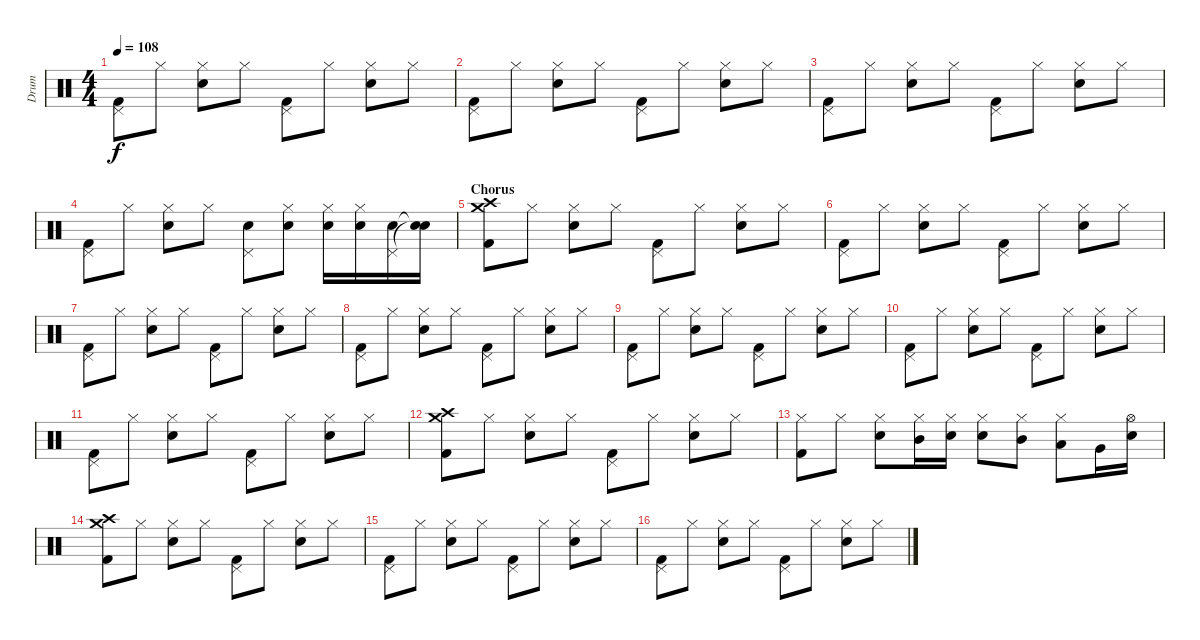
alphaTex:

\track ("Drum" "Drum") {instrument percussion}
\staff {score}
\articulation defaults
\ts (4 4)
\tempo 108
\clef neutral
\ks c
("Pedal Hi-Hat (hit)" "Kick (hit) 2").8{dy f} "Hi-Hat (closed)".8 ("Hi-Hat (closed)" "Electric Snare (hit)").8 "Hi-Hat (closed)".8 ("Pedal Hi-Hat (hit)" "Kick (hit) 2").8 "Hi-Hat (closed)".8 ("Hi-Hat (closed)" "Electric Snare (hit)").8 "Hi-Hat (closed)".8 |
("Pedal Hi-Hat (hit)" "Kick (hit) 2").8 "Hi-Hat (closed)".8 ("Hi-Hat (closed)" "Electric Snare (hit)").8 "Hi-Hat (closed)".8 ("Pedal Hi-Hat (hit)" "Kick (hit) 2").8 "Hi-Hat (closed)".8 ("Hi-Hat (closed)" "Electric Snare (hit)").8 "Hi-Hat (closed)".8 |
("Pedal Hi-Hat (hit)" "Kick (hit) 2").8 "Hi-Hat (closed)".8 ("Hi-Hat (closed)" "Electric Snare (hit)").8 "Hi-Hat (closed)".8 ("Pedal Hi-Hat (hit)" "Kick (hit) 2").8 "Hi-Hat (closed)".8 ("Hi-Hat (closed)" "Electric Snare (hit)").8 "Hi-Hat (closed)".8 |
("Pedal Hi-Hat (hit)" "Kick (hit) 2").8 "Hi-Hat (closed)".8 ("Hi-Hat (closed)" "Electric Snare (hit)").8 "Hi-Hat (closed)".8 ("Pedal Hi-Hat (hit)" "Electric Snare (hit)").8 ("Hi-Hat (closed)" "Electric Snare (hit)").8 ("Hi-Hat (closed)" "Electric Snare (hit)").16 ("Hi-Hat (closed)" "Electric Snare (hit)").16 ("Pedal Hi-Hat (hit)" "Electric Snare (hit)").16 ("Snare (hit)"{t} "Snare (hit)"{t}).16 |
\section ("" "Chorus")
("Kick (hit) 2" "Crash high (hit)" "Crash medium (hit)").8 "Hi-Hat (closed)".8 ("Hi-Hat (closed)" "Electric Snare (hit)").8 "Hi-Hat (closed)".8 ("Pedal Hi-Hat (hit)" "Kick (hit) 2").8 "Hi-Hat (closed)".8 ("Hi-Hat (closed)" "Electric Snare (hit)").8 "Hi-Hat (closed)".8 |
("Pedal Hi-Hat (hit)" "Kick (hit) 2").8 "Hi-Hat (closed)".8 ("Hi-Hat (closed)" "Electric Snare (hit)").8 "Hi-Hat (closed)".8 ("Pedal Hi-Hat (hit)" "Kick (hit) 2").8 "Hi-Hat (closed)".8 ("Hi-Hat (closed)" "Electric Snare (hit)").8 "Hi-Hat (closed)".8 |
("Pedal Hi-Hat (hit)" "Kick (hit) 2").8 "Hi-Hat (closed)".8 ("Hi-Hat (closed)" "Electric Snare (hit)").8 "Hi-Hat (closed)".8 ("Pedal Hi-Hat (hit)" "Kick (hit) 2").8 "Hi-Hat (closed)".8 ("Hi-Hat (closed)" "Electric Snare (hit)").8 "Hi-Hat (closed)".8 |
("Pedal Hi-Hat (hit)" "Kick (hit) 2").8 "Hi-Hat (closed)".8 ("Hi-Hat (closed)" "Electric Snare (hit)").8 "Hi-Hat (closed)".8 ("Pedal Hi-Hat (hit)" "Kick (hit) 2").8 "Hi-Hat (closed)".8 ("Hi-Hat (closed)" "Electric Snare (hit)").8 "Hi-Hat (closed)".8 |
("Pedal Hi-Hat (hit)" "Kick (hit) 2").8 "Hi-Hat (closed)".8 ("Hi-Hat (closed)" "Electric Snare (hit)").8 "Hi-Hat (closed)".8 ("Pedal Hi-Hat (hit)" "Kick (hit) 2").8 "Hi-Hat (closed)".8 ("Hi-Hat (closed)" "Electric Snare (hit)").8 "Hi-Hat (closed)".8 |
("Pedal Hi-Hat (hit)" "Kick (hit) 2").8 "Hi-Hat (closed)".8 ("Hi-Hat (closed)" "Electric Snare (hit)").8 "Hi-Hat (closed)".8 ("Pedal Hi-Hat (hit)" "Kick (hit) 2").8 "Hi-Hat (closed)".8 ("Hi-Hat (closed)" "Electric Snare (hit)").8 "Hi-Hat (closed)".8 |
("Pedal Hi-Hat (hit)" "Kick (hit) 2").8 "Hi-Hat (closed)".8 ("Hi-Hat (closed)" "Electric Snare (hit)").8 "Hi-Hat (closed)".8 ("Pedal Hi-Hat (hit)" "Kick (hit) 2").8 "Hi-Hat (closed)".8 ("Hi-Hat (closed)" "Electric Snare (hit)").8 "Hi-Hat (closed)".8 |
("Kick (hit) 2" "Crash high (hit)" "Crash medium (hit)").8 "Hi-Hat (closed)".8 ("Hi-Hat (closed)" "Electric Snare (hit)").8 "Hi-Hat (closed)".8 ("Pedal Hi-Hat (hit)" "Kick (hit) 2").8 "Hi-Hat (closed)".8 ("Hi-Hat (closed)" "Electric Snare (hit)").8 "Hi-Hat (closed)".8 |
("Hi-Hat (closed)" "Kick (hit) 2").8 "Hi-Hat (closed)".8 ("Hi-Hat (closed)" "Electric Snare (hit)").8 ("Hi-Hat (closed)" "Mid Tom (hit)").16 ("Hi-Hat (closed)" "Electric Snare (hit)").16 ("Hi-Hat (closed)" "Electric Snare (hit)").8 ("Hi-Hat (closed)" "Mid Tom (hit)").8 ("Hi-Hat (closed)" "Low Tom (hit)").8 "Very Low Tom (hit)".16 ("Hi-Hat (open)" "Electric Snare (hit)").16 |
("Kick (hit) 2" "Crash high (hit)" "Crash medium (hit)").8 "Hi-Hat (closed)".8 ("Hi-Hat (closed)" "Electric Snare (hit)").8 "Hi-Hat (closed)".8 ("Pedal Hi-Hat (hit)" "Kick (hit) 2").8 "Hi-Hat (closed)".8 ("Hi-Hat (closed)" "Electric Snare (hit)").8 "Hi-Hat (closed)".8 |
("Pedal Hi-Hat (hit)" "Kick (hit) 2").8 "Hi-Hat (closed)".8 ("Hi-Hat (closed)" "Electric Snare (hit)").8 "Hi-Hat (closed)".8 ("Pedal Hi-Hat (hit)" "Kick (hit) 2").8 "Hi-Hat (closed)".8 ("Hi-Hat (closed)" "Electric Snare (hit)").8 "Hi-Hat (closed)".8 |
("Pedal Hi-Hat (hit)" "Kick (hit) 2").8 "Hi-Hat (closed)".8 ("Hi-Hat (closed)" "Electric Snare (hit)").8 "Hi-Hat (closed)".8 ("Pedal Hi-Hat (hit)" "Kick (hit) 2").8 "Hi-Hat (closed)".8 ("Hi-Hat (closed)" "Electric Snare (hit)").8 "Hi-Hat (closed)".8
